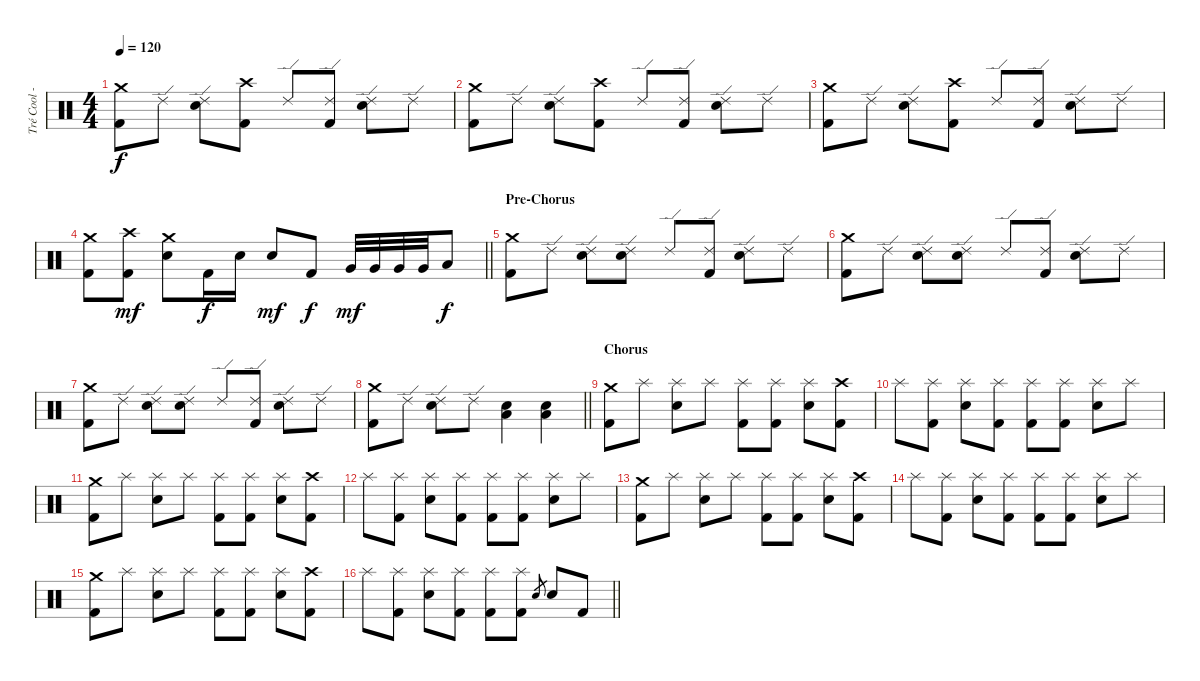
\track ("Tré Cool - Drums" "Tré Cool -") {instrument percussion}
\staff {score}
\articulation defaults
\ts (4 4)
\tempo 120
\clef neutral
\ks c
("Crash medium (hit)" "Kick (hit) 2").8{dy f} "Ride (edge) 2".8 ("Ride (edge) 2" "Electric Snare (hit)").8 ("Crash high (hit)" "Kick (hit) 2").8 "Ride (edge) 2".8 ("Ride (edge) 2" "Kick (hit) 2").8 ("Ride (edge) 2" "Electric Snare (hit)").8 "Ride (edge) 2".8 |
("Crash medium (hit)" "Kick (hit) 2").8 "Ride (edge) 2".8 ("Ride (edge) 2" "Electric Snare (hit)").8 ("Crash high (hit)" "Kick (hit) 2").8 "Ride (edge) 2".8 ("Ride (edge) 2" "Kick (hit) 2").8 ("Ride (edge) 2" "Electric Snare (hit)").8 "Ride (edge) 2".8 |
("Crash medium (hit)" "Kick (hit) 2").8 "Ride (edge) 2".8 ("Ride (edge) 2" "Electric Snare (hit)").8 ("Crash high (hit)" "Kick (hit) 2").8 "Ride (edge) 2".8 ("Ride (edge) 2" "Kick (hit) 2").8 ("Ride (edge) 2" "Electric Snare (hit)").8 "Ride (edge) 2".8 |
\barLineRight lightlight
("Crash medium (hit)" "Kick (hit) 2").8 ("Crash high (hit)" "Kick (hit) 2").8{dy mf} ("Crash medium (hit)" "Electric Snare (hit)").8 "Kick (hit) 2".16{dy f} "Electric Snare (hit)".16 "Electric Snare (hit)".8{dy mf} "Kick (hit) 2".8{dy f} "Very Low Tom (hit)".32{dy mf} "Very Low Tom (hit)".32 "Very Low Tom (hit)".32 "Very Low Tom (hit)".32 "Low Floor Tom (hit)".8{dy f} |
\section ("" "Pre-Chorus")
("Crash medium (hit)" "Kick (hit) 2").8 "Ride (edge) 2".8 ("Ride (edge) 2" "Electric Snare (hit)").8 ("Ride (edge) 2" "Electric Snare (hit)").8 "Ride (edge) 2".8 ("Ride (edge) 2" "Kick (hit) 2").8 ("Ride (edge) 2" "Electric Snare (hit)").8 "Ride (edge) 2".8 |
("Crash medium (hit)" "Kick (hit) 2").8 "Ride (edge) 2".8 ("Ride (edge) 2" "Electric Snare (hit)").8 ("Ride (edge) 2" "Electric Snare (hit)").8 "Ride (edge) 2".8 ("Ride (edge) 2" "Kick (hit) 2").8 ("Ride (edge) 2" "Electric Snare (hit)").8 "Ride (edge) 2".8 |
("Crash medium (hit)" "Kick (hit) 2").8 "Ride (edge) 2".8 ("Ride (edge) 2" "Electric Snare (hit)").8 ("Ride (edge) 2" "Electric Snare (hit)").8 "Ride (edge) 2".8 ("Ride (edge) 2" "Kick (hit) 2").8 ("Ride (edge) 2" "Electric Snare (hit)").8 "Ride (edge) 2".8 |
\barLineRight lightlight
("Crash medium (hit)" "Kick (hit) 2").8 "Ride (edge) 2".8 ("Ride (edge) 2" "Electric Snare (hit)").8 "Ride (edge) 2".8 ("Electric Snare (hit)" "Low Floor Tom (hit)").4 ("Electric Snare (hit)" "Low Floor Tom (hit)").4 |
\section ("" "Chorus")
("Crash medium (hit)" "Kick (hit) 2").8 "Splash (hit)".8 ("Splash (hit)" "Electric Snare (hit)").8 "Splash (hit)".8 ("Splash (hit)" "Kick (hit) 2").8 ("Splash (hit)" "Kick (hit) 2").8 ("Splash (hit)" "Electric Snare (hit)").8 ("Crash high (hit)" "Kick (hit) 2").8 |
"Splash (hit)".8 ("Splash (hit)" "Kick (hit) 2").8 ("Splash (hit)" "Electric Snare (hit)").8 ("Splash (hit)" "Kick (hit) 2").8 ("Splash (hit)" "Kick (hit) 2").8 ("Splash (hit)" "Kick (hit) 2").8 ("Splash (hit)" "Electric Snare (hit)").8 "Splash (hit)".8 |
("Crash medium (hit)" "Kick (hit) 2").8 "Splash (hit)".8 ("Splash (hit)" "Electric Snare (hit)").8 "Splash (hit)".8 ("Splash (hit)" "Kick (hit) 2").8 ("Splash (hit)" "Kick (hit) 2").8 ("Splash (hit)" "Electric Snare (hit)").8 ("Crash high (hit)" "Kick (hit) 2").8 |
"Splash (hit)".8 ("Splash (hit)" "Kick (hit) 2").8 ("Splash (hit)" "Electric Snare (hit)").8 ("Splash (hit)" "Kick (hit) 2").8 ("Splash (hit)" "Kick (hit) 2").8 ("Splash (hit)" "Kick (hit) 2").8 ("Splash (hit)" "Electric Snare (hit)").8 "Splash (hit)".8 |
("Crash medium (hit)" "Kick (hit) 2").8 "Splash (hit)".8 ("Splash (hit)" "Electric Snare (hit)").8 "Splash (hit)".8 ("Splash (hit)" "Kick (hit) 2").8 ("Splash (hit)" "Kick (hit) 2").8 ("Splash (hit)" "Electric Snare (hit)").8 ("Crash high (hit)" "Kick (hit) 2").8 |
"Splash (hit)".8 ("Splash (hit)" "Kick (hit) 2").8 ("Splash (hit)" "Electric Snare (hit)").8 ("Splash (hit)" "Kick (hit) 2").8 ("Splash (hit)" "Kick (hit) 2").8 ("Splash (hit)" "Kick (hit) 2").8 ("Splash (hit)" "Electric Snare (hit)").8 "Splash (hit)".8 |
("Crash medium (hit)" "Kick (hit) 2").8 "Splash (hit)".8 ("Splash (hit)" "Electric Snare (hit)").8 "Splash (hit)".8 ("Splash (hit)" "Kick (hit) 2").8 ("Splash (hit)" "Kick (hit) 2").8 ("Splash (hit)" "Electric Snare (hit)").8 ("Crash high (hit)" "Kick (hit) 2").8 |
\barLineRight lightlight "Splash (hit)".8
("Splash (hit)" "Kick (hit) 2").8 ("Splash (hit)" "Electric Snare (hit)").8 ("Splash (hit)" "Kick (hit) 2").8 ("Splash (hit)" "Kick (hit) 2").8 ("Splash (hit)" "Kick (hit) 2").8 "Electric Snare (hit)".8{gr} "Electric Snare (hit)".8 "Kick (hit) 2".8
